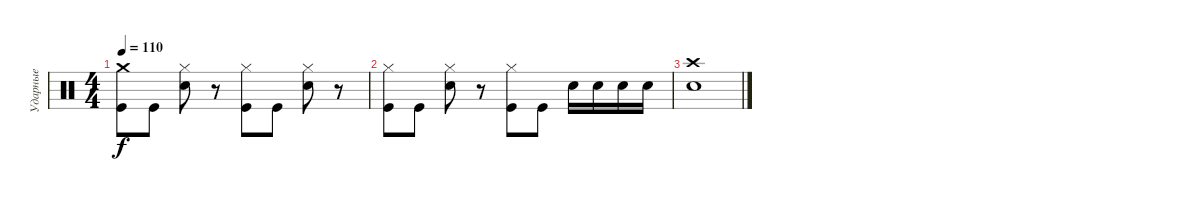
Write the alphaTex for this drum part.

\track ("Ударные" "Ударные") {solo instrument percussion}
\staff {score}
\articulation defaults
\ts (4 4)
\tempo 110
\clef neutral
\ks c
("Kick (hit)" "Crash medium (hit)").8{dy f} "Kick (hit)".8 ("Snare (hit) 2" "Hi-Hat (closed)").8 r.8 ("Kick (hit)" "Hi-Hat (closed)").8 "Kick (hit)".8 ("Snare (hit) 2" "Hi-Hat (closed)").8 r.8 |
("Kick (hit)" "Hi-Hat (closed)").8 "Kick (hit)".8 ("Snare (hit) 2" "Hi-Hat (closed)").8 r.8 ("Kick (hit)" "Hi-Hat (closed)").8 "Kick (hit)".8 "Snare (hit) 2".16 "Snare (hit) 2".16 "Snare (hit) 2".16 "Snare (hit) 2".16 |
("Snare (hit) 2" "Crash high (hit)").1
